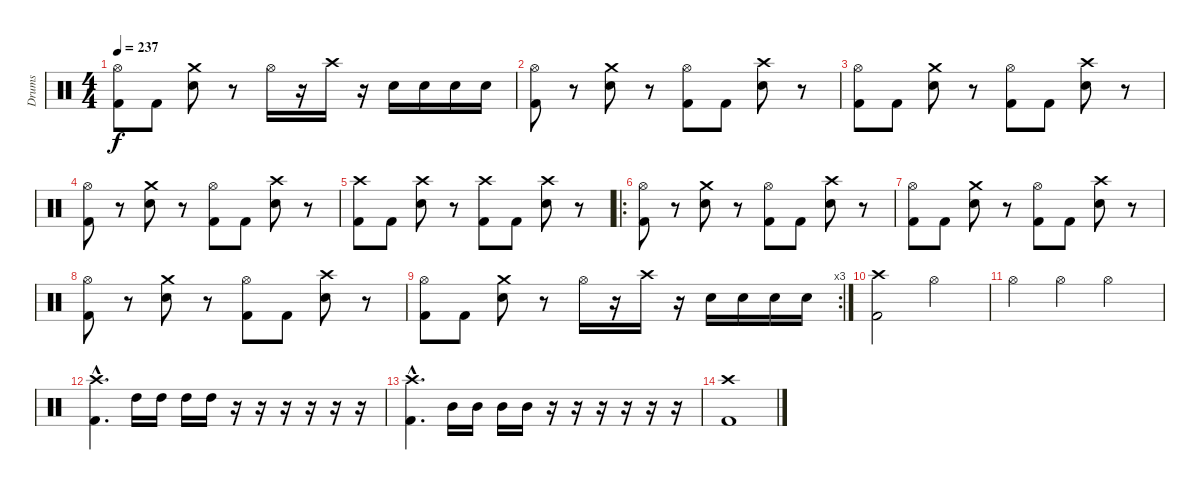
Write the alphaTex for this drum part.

\track ("Drums" "Drums") {instrument percussion}
\staff {score}
\articulation defaults
\ts (4 4)
\tempo 237
\clef neutral
\ks c
("Hi-Hat (open)" "Kick (hit) 2").8{dy f} "Kick (hit) 2".8 ("Crash medium (hit)" "Snare (hit) 2").8 r.8 "Hi-Hat (open)".16 r.16 "Crash high (hit)".16 r.16 "Snare (hit) 2".16 "Snare (hit) 2".16 "Snare (hit) 2".16 "Snare (hit) 2".16 |
("Hi-Hat (open)" "Kick (hit) 2").8 r.8 ("Crash medium (hit)" "Snare (hit) 2").8 r.8 ("Hi-Hat (open)" "Kick (hit) 2").8 "Kick (hit) 2".8 ("Crash high (hit)" "Snare (hit) 2").8 r.8 |
("Hi-Hat (open)" "Kick (hit) 2").8 "Kick (hit) 2".8 ("Crash medium (hit)" "Snare (hit) 2").8 r.8 ("Hi-Hat (open)" "Kick (hit) 2").8 "Kick (hit) 2".8 ("Crash high (hit)" "Snare (hit) 2").8 r.8 |
("Hi-Hat (open)" "Kick (hit) 2").8 r.8 ("Crash medium (hit)" "Snare (hit) 2").8 r.8 ("Hi-Hat (open)" "Kick (hit) 2").8 "Kick (hit) 2".8 ("Crash high (hit)" "Snare (hit) 2").8 r.8 |
("Crash high (hit)" "Kick (hit) 2").8 "Kick (hit) 2".8 ("Crash high (hit)" "Snare (hit) 2").8 r.8 ("Crash high (hit)" "Kick (hit) 2").8 "Kick (hit) 2".8 ("Crash high (hit)" "Snare (hit) 2").8 r.8 |
\ro
("Hi-Hat (open)" "Kick (hit) 2").8 r.8 ("Crash medium (hit)" "Snare (hit) 2").8 r.8 ("Hi-Hat (open)" "Kick (hit) 2").8 "Kick (hit) 2".8 ("Crash high (hit)" "Snare (hit) 2").8 r.8 |
("Hi-Hat (open)" "Kick (hit) 2").8 "Kick (hit) 2".8 ("Crash medium (hit)" "Snare (hit) 2").8 r.8 ("Hi-Hat (open)" "Kick (hit) 2").8 "Kick (hit) 2".8 ("Crash high (hit)" "Snare (hit) 2").8 r.8 |
("Hi-Hat (open)" "Kick (hit) 2").8 r.8 ("Crash medium (hit)" "Snare (hit) 2").8 r.8 ("Hi-Hat (open)" "Kick (hit) 2").8 "Kick (hit) 2".8 ("Crash high (hit)" "Snare (hit) 2").8 r.8 |
\rc 3
("Hi-Hat (open)" "Kick (hit) 2").8 "Kick (hit) 2".8 ("Crash medium (hit)" "Snare (hit) 2").8 r.8 "Hi-Hat (open)".16 r.16 "Crash high (hit)".16 r.16 "Snare (hit) 2".16 "Snare (hit) 2".16 "Snare (hit) 2".16 "Snare (hit) 2".16 |
("Crash high (hit)" "Kick (hit) 2").2 "Hi-Hat (open)".2 |
"Hi-Hat (open)".4 "Hi-Hat (open)".4 "Hi-Hat (open)".2 |
("Crash high (hit)"{hac} "Kick (hit) 2"{hac}).4{d} "High Tom (hit)".16 "High Tom (hit)".16 "High Tom (hit)".16 "High Tom (hit)".16 r.16 r.16 r.16 r.16 r.16 r.16 |
("Crash high (hit)"{hac} "Kick (hit) 2"{hac}).4{d} "Mid Tom (hit)".16 "Mid Tom (hit)".16 "Mid Tom (hit)".16 "Mid Tom (hit)".16 r.16 r.16 r.16 r.16 r.16 r.16 |
("Crash high (hit)" "Kick (hit) 2").1
